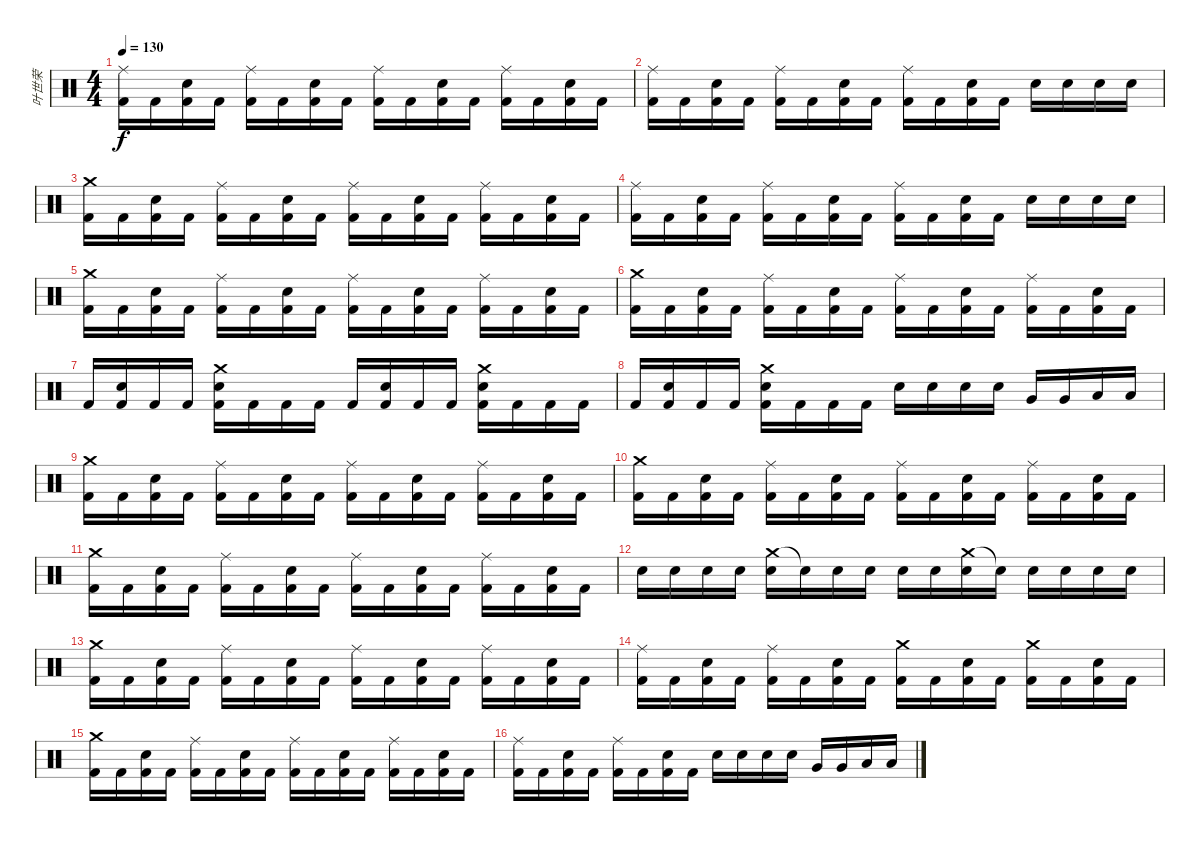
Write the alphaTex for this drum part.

\track ("叶世荣" "叶世荣") {instrument percussion}
\staff {score}
\articulation defaults
\ts (4 4)
\tempo 130
\clef neutral
\ks c
("Ride (middle)" "Kick (hit) 2").16{dy f} "Kick (hit) 2".16 ("Snare (hit) 2" "Kick (hit) 2").16 "Kick (hit) 2".16 ("Ride (middle)" "Kick (hit) 2").16 "Kick (hit) 2".16 ("Snare (hit) 2" "Kick (hit) 2").16 "Kick (hit) 2".16 ("Ride (middle)" "Kick (hit) 2").16 "Kick (hit) 2".16 ("Snare (hit) 2" "Kick (hit) 2").16 "Kick (hit) 2".16 ("Ride (middle)" "Kick (hit) 2").16 "Kick (hit) 2".16 ("Snare (hit) 2" "Kick (hit) 2").16 "Kick (hit) 2".16 |
("Ride (middle)" "Kick (hit) 2").16 "Kick (hit) 2".16 ("Snare (hit) 2" "Kick (hit) 2").16 "Kick (hit) 2".16 ("Ride (middle)" "Kick (hit) 2").16 "Kick (hit) 2".16 ("Snare (hit) 2" "Kick (hit) 2").16 "Kick (hit) 2".16 ("Ride (middle)" "Kick (hit) 2").16 "Kick (hit) 2".16 ("Snare (hit) 2" "Kick (hit) 2").16 "Kick (hit) 2".16 "Snare (hit) 2".16 "Snare (hit) 2".16 "Snare (hit) 2".16 "Snare (hit) 2".16 |
("Crash medium (hit)" "Kick (hit) 2").16 "Kick (hit) 2".16 ("Snare (hit) 2" "Kick (hit) 2").16 "Kick (hit) 2".16 ("Ride (middle)" "Kick (hit) 2").16 "Kick (hit) 2".16 ("Snare (hit) 2" "Kick (hit) 2").16 "Kick (hit) 2".16 ("Ride (middle)" "Kick (hit) 2").16 "Kick (hit) 2".16 ("Snare (hit) 2" "Kick (hit) 2").16 "Kick (hit) 2".16 ("Ride (middle)" "Kick (hit) 2").16 "Kick (hit) 2".16 ("Snare (hit) 2" "Kick (hit) 2").16 "Kick (hit) 2".16 |
("Ride (middle)" "Kick (hit) 2").16 "Kick (hit) 2".16 ("Snare (hit) 2" "Kick (hit) 2").16 "Kick (hit) 2".16 ("Ride (middle)" "Kick (hit) 2").16 "Kick (hit) 2".16 ("Snare (hit) 2" "Kick (hit) 2").16 "Kick (hit) 2".16 ("Ride (middle)" "Kick (hit) 2").16 "Kick (hit) 2".16 ("Snare (hit) 2" "Kick (hit) 2").16 "Kick (hit) 2".16 "Snare (hit) 2".16 "Snare (hit) 2".16 "Snare (hit) 2".16 "Snare (hit) 2".16 |
("Crash medium (hit)" "Kick (hit) 2").16 "Kick (hit) 2".16 ("Snare (hit) 2" "Kick (hit) 2").16 "Kick (hit) 2".16 ("Ride (middle)" "Kick (hit) 2").16 "Kick (hit) 2".16 ("Snare (hit) 2" "Kick (hit) 2").16 "Kick (hit) 2".16 ("Ride (middle)" "Kick (hit) 2").16 "Kick (hit) 2".16 ("Snare (hit) 2" "Kick (hit) 2").16 "Kick (hit) 2".16 ("Ride (middle)" "Kick (hit) 2").16 "Kick (hit) 2".16 ("Snare (hit) 2" "Kick (hit) 2").16 "Kick (hit) 2".16 |
("Crash medium (hit)" "Kick (hit) 2").16 "Kick (hit) 2".16 ("Snare (hit) 2" "Kick (hit) 2").16 "Kick (hit) 2".16 ("Ride (middle)" "Kick (hit) 2").16 "Kick (hit) 2".16 ("Snare (hit) 2" "Kick (hit) 2").16 "Kick (hit) 2".16 ("Ride (middle)" "Kick (hit) 2").16 "Kick (hit) 2".16 ("Snare (hit) 2" "Kick (hit) 2").16 "Kick (hit) 2".16 ("Ride (middle)" "Kick (hit) 2").16 "Kick (hit) 2".16 ("Snare (hit) 2" "Kick (hit) 2").16 "Kick (hit) 2".16 |
"Kick (hit) 2".16 ("Snare (hit) 2" "Kick (hit) 2").16 "Kick (hit) 2".16 "Kick (hit) 2".16 ("Crash medium (hit)" "Snare (hit) 2" "Kick (hit) 2").16 "Kick (hit) 2".16 "Kick (hit) 2".16 "Kick (hit) 2".16 "Kick (hit) 2".16 ("Snare (hit) 2" "Kick (hit) 2").16 "Kick (hit) 2".16 "Kick (hit) 2".16 ("Crash medium (hit)" "Snare (hit) 2" "Kick (hit) 2").16 "Kick (hit) 2".16 "Kick (hit) 2".16 "Kick (hit) 2".16 |
"Kick (hit) 2".16 ("Snare (hit) 2" "Kick (hit) 2").16 "Kick (hit) 2".16 "Kick (hit) 2".16 ("Crash medium (hit)" "Snare (hit) 2" "Kick (hit) 2").16 "Kick (hit) 2".16 "Kick (hit) 2".16 "Kick (hit) 2".16 "Snare (hit) 2".16 "Snare (hit) 2".16 "Snare (hit) 2".16 "Snare (hit) 2".16 "Very Low Tom (hit)".16 "Very Low Tom (hit)".16 "Low Floor Tom (hit)".16 "Low Floor Tom (hit)".16 |
("Crash medium (hit)" "Kick (hit) 2").16 "Kick (hit) 2".16 ("Snare (hit) 2" "Kick (hit) 2").16 "Kick (hit) 2".16 ("Ride (middle)" "Kick (hit) 2").16 "Kick (hit) 2".16 ("Snare (hit) 2" "Kick (hit) 2").16 "Kick (hit) 2".16 ("Ride (middle)" "Kick (hit) 2").16 "Kick (hit) 2".16 ("Snare (hit) 2" "Kick (hit) 2").16 "Kick (hit) 2".16 ("Ride (middle)" "Kick (hit) 2").16 "Kick (hit) 2".16 ("Snare (hit) 2" "Kick (hit) 2").16 "Kick (hit) 2".16 |
("Crash medium (hit)" "Kick (hit) 2").16 "Kick (hit) 2".16 ("Snare (hit) 2" "Kick (hit) 2").16 "Kick (hit) 2".16 ("Ride (middle)" "Kick (hit) 2").16 "Kick (hit) 2".16 ("Snare (hit) 2" "Kick (hit) 2").16 "Kick (hit) 2".16 ("Ride (middle)" "Kick (hit) 2").16 "Kick (hit) 2".16 ("Snare (hit) 2" "Kick (hit) 2").16 "Kick (hit) 2".16 ("Ride (middle)" "Kick (hit) 2").16 "Kick (hit) 2".16 ("Snare (hit) 2" "Kick (hit) 2").16 "Kick (hit) 2".16 |
("Crash medium (hit)" "Kick (hit) 2").16 "Kick (hit) 2".16 ("Snare (hit) 2" "Kick (hit) 2").16 "Kick (hit) 2".16 ("Ride (middle)" "Kick (hit) 2").16 "Kick (hit) 2".16 ("Snare (hit) 2" "Kick (hit) 2").16 "Kick (hit) 2".16 ("Ride (middle)" "Kick (hit) 2").16 "Kick (hit) 2".16 ("Snare (hit) 2" "Kick (hit) 2").16 "Kick (hit) 2".16 ("Ride (middle)" "Kick (hit) 2").16 "Kick (hit) 2".16 ("Snare (hit) 2" "Kick (hit) 2").16 "Kick (hit) 2".16 |
"Snare (hit) 2".16 "Snare (hit) 2".16 "Snare (hit) 2".16 "Snare (hit) 2".16 ("Crash medium (hit)" "Snare (hit) 2").16 "Snare (hit)"{t}.16 "Snare (hit) 2".16 "Snare (hit) 2".16 "Snare (hit) 2".16 "Snare (hit) 2".16 ("Crash medium (hit)" "Snare (hit) 2").16 "Snare (hit)"{t}.16 "Snare (hit) 2".16 "Snare (hit) 2".16 "Snare (hit) 2".16 "Snare (hit) 2".16 |
("Crash medium (hit)" "Kick (hit) 2").16 "Kick (hit) 2".16 ("Snare (hit) 2" "Kick (hit) 2").16 "Kick (hit) 2".16 ("Ride (middle)" "Kick (hit) 2").16 "Kick (hit) 2".16 ("Snare (hit) 2" "Kick (hit) 2").16 "Kick (hit) 2".16 ("Ride (middle)" "Kick (hit) 2").16 "Kick (hit) 2".16 ("Snare (hit) 2" "Kick (hit) 2").16 "Kick (hit) 2".16 ("Ride (middle)" "Kick (hit) 2").16 "Kick (hit) 2".16 ("Snare (hit) 2" "Kick (hit) 2").16 "Kick (hit) 2".16 |
("Ride (middle)" "Kick (hit) 2").16 "Kick (hit) 2".16 ("Snare (hit) 2" "Kick (hit) 2").16 "Kick (hit) 2".16 ("Ride (middle)" "Kick (hit) 2").16 "Kick (hit) 2".16 ("Snare (hit) 2" "Kick (hit) 2").16 "Kick (hit) 2".16 ("Crash medium (hit)" "Kick (hit) 2").16 "Kick (hit) 2".16 ("Snare (hit) 2" "Kick (hit) 2").16 "Kick (hit) 2".16 ("Crash medium (hit)" "Kick (hit) 2").16 "Kick (hit) 2".16 ("Snare (hit) 2" "Kick (hit) 2").16 "Kick (hit) 2".16 |
("Crash medium (hit)" "Kick (hit) 2").16 "Kick (hit) 2".16 ("Snare (hit) 2" "Kick (hit) 2").16 "Kick (hit) 2".16 ("Ride (middle)" "Kick (hit) 2").16 "Kick (hit) 2".16 ("Snare (hit) 2" "Kick (hit) 2").16 "Kick (hit) 2".16 ("Ride (middle)" "Kick (hit) 2").16 "Kick (hit) 2".16 ("Snare (hit) 2" "Kick (hit) 2").16 "Kick (hit) 2".16 ("Ride (middle)" "Kick (hit) 2").16 "Kick (hit) 2".16 ("Snare (hit) 2" "Kick (hit) 2").16 "Kick (hit) 2".16 |
("Ride (middle)" "Kick (hit) 2").16 "Kick (hit) 2".16 ("Snare (hit) 2" "Kick (hit) 2").16 "Kick (hit) 2".16 ("Ride (middle)" "Kick (hit) 2").16 "Kick (hit) 2".16 ("Snare (hit) 2" "Kick (hit) 2").16 "Kick (hit) 2".16 "Snare (hit) 2".16 "Snare (hit) 2".16 "Snare (hit) 2".16 "Snare (hit) 2".16 "Very Low Tom (hit)".16 "Very Low Tom (hit)".16 "Low Floor Tom (hit)".16 "Low Floor Tom (hit)".16
